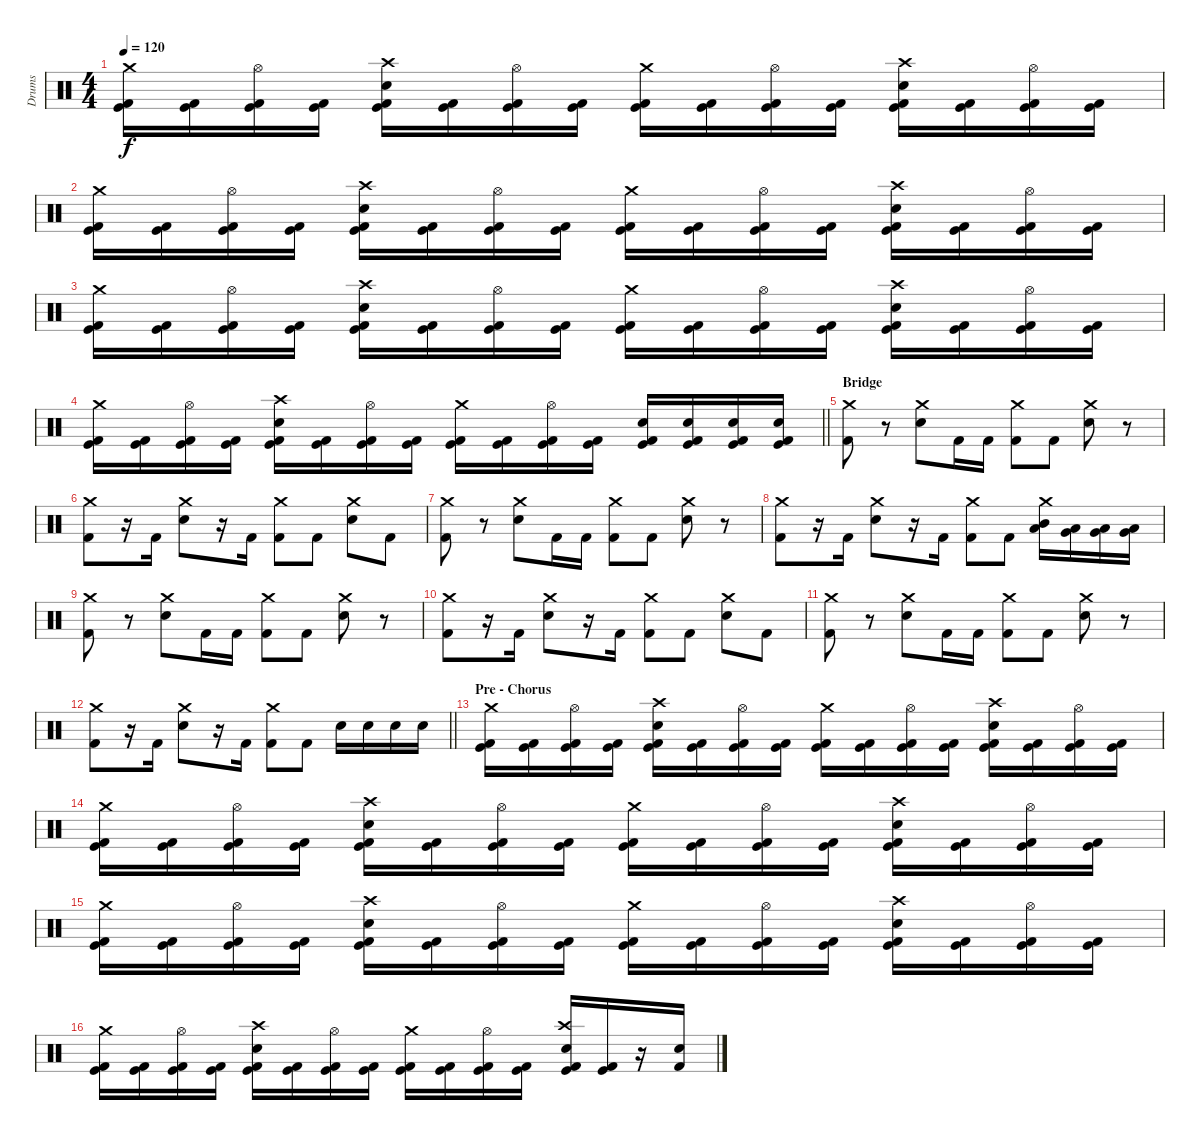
\track ("Drums" "Drums") {instrument percussion}
\staff {score}
\articulation defaults
\ts (4 4)
\tempo 120
\clef neutral
\ks c
("Crash medium (hit)" "Kick (hit) 2" "Kick (hit)").16{dy f} ("Kick (hit) 2" "Kick (hit)").16 ("Hi-Hat (open)" "Kick (hit) 2" "Kick (hit)").16 ("Kick (hit) 2" "Kick (hit)").16 ("Crash high (hit)" "Electric Snare (hit)" "Kick (hit) 2" "Kick (hit)").16 ("Kick (hit) 2" "Kick (hit)").16 ("Hi-Hat (open)" "Kick (hit) 2" "Kick (hit)").16 ("Kick (hit) 2" "Kick (hit)").16 ("Crash medium (hit)" "Kick (hit) 2" "Kick (hit)").16 ("Kick (hit) 2" "Kick (hit)").16 ("Hi-Hat (open)" "Kick (hit) 2" "Kick (hit)").16 ("Kick (hit) 2" "Kick (hit)").16 ("Crash high (hit)" "Electric Snare (hit)" "Kick (hit) 2" "Kick (hit)").16 ("Kick (hit) 2" "Kick (hit)").16 ("Hi-Hat (open)" "Kick (hit) 2" "Kick (hit)").16 ("Kick (hit) 2" "Kick (hit)").16 |
("Crash medium (hit)" "Kick (hit) 2" "Kick (hit)").16 ("Kick (hit) 2" "Kick (hit)").16 ("Hi-Hat (open)" "Kick (hit) 2" "Kick (hit)").16 ("Kick (hit) 2" "Kick (hit)").16 ("Crash high (hit)" "Electric Snare (hit)" "Kick (hit) 2" "Kick (hit)").16 ("Kick (hit) 2" "Kick (hit)").16 ("Hi-Hat (open)" "Kick (hit) 2" "Kick (hit)").16 ("Kick (hit) 2" "Kick (hit)").16 ("Crash medium (hit)" "Kick (hit) 2" "Kick (hit)").16 ("Kick (hit) 2" "Kick (hit)").16 ("Hi-Hat (open)" "Kick (hit) 2" "Kick (hit)").16 ("Kick (hit) 2" "Kick (hit)").16 ("Crash high (hit)" "Electric Snare (hit)" "Kick (hit) 2" "Kick (hit)").16 ("Kick (hit) 2" "Kick (hit)").16 ("Hi-Hat (open)" "Kick (hit) 2" "Kick (hit)").16 ("Kick (hit) 2" "Kick (hit)").16 |
("Crash medium (hit)" "Kick (hit) 2" "Kick (hit)").16 ("Kick (hit) 2" "Kick (hit)").16 ("Hi-Hat (open)" "Kick (hit) 2" "Kick (hit)").16 ("Kick (hit) 2" "Kick (hit)").16 ("Crash high (hit)" "Electric Snare (hit)" "Kick (hit) 2" "Kick (hit)").16 ("Kick (hit) 2" "Kick (hit)").16 ("Hi-Hat (open)" "Kick (hit) 2" "Kick (hit)").16 ("Kick (hit) 2" "Kick (hit)").16 ("Crash medium (hit)" "Kick (hit) 2" "Kick (hit)").16 ("Kick (hit) 2" "Kick (hit)").16 ("Hi-Hat (open)" "Kick (hit) 2" "Kick (hit)").16 ("Kick (hit) 2" "Kick (hit)").16 ("Crash high (hit)" "Electric Snare (hit)" "Kick (hit) 2" "Kick (hit)").16 ("Kick (hit) 2" "Kick (hit)").16 ("Hi-Hat (open)" "Kick (hit) 2" "Kick (hit)").16 ("Kick (hit) 2" "Kick (hit)").16 |
\barLineRight lightlight
("Crash medium (hit)" "Kick (hit) 2" "Kick (hit)").16 ("Kick (hit) 2" "Kick (hit)").16 ("Hi-Hat (open)" "Kick (hit) 2" "Kick (hit)").16 ("Kick (hit) 2" "Kick (hit)").16 ("Crash high (hit)" "Electric Snare (hit)" "Kick (hit) 2" "Kick (hit)").16 ("Kick (hit) 2" "Kick (hit)").16 ("Hi-Hat (open)" "Kick (hit) 2" "Kick (hit)").16 ("Kick (hit) 2" "Kick (hit)").16 ("Crash medium (hit)" "Kick (hit) 2" "Kick (hit)").16 ("Kick (hit) 2" "Kick (hit)").16 ("Hi-Hat (open)" "Kick (hit) 2" "Kick (hit)").16 ("Kick (hit) 2" "Kick (hit)").16 ("Electric Snare (hit)" "Kick (hit) 2" "Kick (hit)").16 ("Electric Snare (hit)" "Kick (hit) 2" "Kick (hit)").16 ("Electric Snare (hit)" "Kick (hit) 2" "Kick (hit)").16 ("Electric Snare (hit)" "Kick (hit) 2" "Kick (hit)").16 |
\section ("" "Bridge")
("Crash medium (hit)" "Kick (hit) 2").8 r.8 ("Crash medium (hit)" "Electric Snare (hit)").8 "Kick (hit) 2".16 "Kick (hit) 2".16 ("Crash medium (hit)" "Kick (hit) 2").8 "Kick (hit) 2".8 ("Crash medium (hit)" "Electric Snare (hit)").8 r.8 |
("Crash medium (hit)" "Kick (hit) 2").8 r.16 "Kick (hit) 2".16 ("Crash medium (hit)" "Electric Snare (hit)").8 r.16 "Kick (hit) 2".16 ("Crash medium (hit)" "Kick (hit) 2").8 "Kick (hit) 2".8 ("Crash medium (hit)" "Electric Snare (hit)").8 "Kick (hit) 2".8 |
("Crash medium (hit)" "Kick (hit) 2").8 r.8 ("Crash medium (hit)" "Electric Snare (hit)").8 "Kick (hit) 2".16 "Kick (hit) 2".16 ("Crash medium (hit)" "Kick (hit) 2").8 "Kick (hit) 2".8 ("Crash medium (hit)" "Electric Snare (hit)").8 r.8 |
("Crash medium (hit)" "Kick (hit) 2").8 r.16 "Kick (hit) 2".16 ("Crash medium (hit)" "Electric Snare (hit)").8 r.16 "Kick (hit) 2".16 ("Crash medium (hit)" "Kick (hit) 2").8 "Kick (hit) 2".8 ("Crash medium (hit)" "Low Tom (hit)" "Mid Tom (hit)").16 ("Very Low Tom (hit)" "Low Tom (hit)").16 ("Low Floor Tom (hit)" "Very Low Tom (hit)").16 ("Low Floor Tom (hit)" "Very Low Tom (hit)").16 |
("Crash medium (hit)" "Kick (hit) 2").8 r.8 ("Crash medium (hit)" "Electric Snare (hit)").8 "Kick (hit) 2".16 "Kick (hit) 2".16 ("Crash medium (hit)" "Kick (hit) 2").8 "Kick (hit) 2".8 ("Crash medium (hit)" "Electric Snare (hit)").8 r.8 |
("Crash medium (hit)" "Kick (hit) 2").8 r.16 "Kick (hit) 2".16 ("Crash medium (hit)" "Electric Snare (hit)").8 r.16 "Kick (hit) 2".16 ("Crash medium (hit)" "Kick (hit) 2").8 "Kick (hit) 2".8 ("Crash medium (hit)" "Electric Snare (hit)").8 "Kick (hit) 2".8 |
("Crash medium (hit)" "Kick (hit) 2").8 r.8 ("Crash medium (hit)" "Electric Snare (hit)").8 "Kick (hit) 2".16 "Kick (hit) 2".16 ("Crash medium (hit)" "Kick (hit) 2").8 "Kick (hit) 2".8 ("Crash medium (hit)" "Electric Snare (hit)").8 r.8 |
\barLineRight lightlight
("Crash medium (hit)" "Kick (hit) 2").8 r.16 "Kick (hit) 2".16 ("Crash medium (hit)" "Electric Snare (hit)").8 r.16 "Kick (hit) 2".16 ("Crash medium (hit)" "Kick (hit) 2").8 "Kick (hit) 2".8 "Electric Snare (hit)".16 "Electric Snare (hit)".16 "Electric Snare (hit)".16 "Electric Snare (hit)".16 |
\section ("" "Pre - Chorus")
("Crash medium (hit)" "Kick (hit) 2" "Kick (hit)").16 ("Kick (hit) 2" "Kick (hit)").16 ("Hi-Hat (open)" "Kick (hit) 2" "Kick (hit)").16 ("Kick (hit) 2" "Kick (hit)").16 ("Crash high (hit)" "Electric Snare (hit)" "Kick (hit) 2" "Kick (hit)").16 ("Kick (hit) 2" "Kick (hit)").16 ("Hi-Hat (open)" "Kick (hit) 2" "Kick (hit)").16 ("Kick (hit) 2" "Kick (hit)").16 ("Crash medium (hit)" "Kick (hit) 2" "Kick (hit)").16 ("Kick (hit) 2" "Kick (hit)").16 ("Hi-Hat (open)" "Kick (hit) 2" "Kick (hit)").16 ("Kick (hit) 2" "Kick (hit)").16 ("Crash high (hit)" "Electric Snare (hit)" "Kick (hit) 2" "Kick (hit)").16 ("Kick (hit) 2" "Kick (hit)").16 ("Hi-Hat (open)" "Kick (hit) 2" "Kick (hit)").16 ("Kick (hit) 2" "Kick (hit)").16 |
("Crash medium (hit)" "Kick (hit) 2" "Kick (hit)").16 ("Kick (hit) 2" "Kick (hit)").16 ("Hi-Hat (open)" "Kick (hit) 2" "Kick (hit)").16 ("Kick (hit) 2" "Kick (hit)").16 ("Crash high (hit)" "Electric Snare (hit)" "Kick (hit) 2" "Kick (hit)").16 ("Kick (hit) 2" "Kick (hit)").16 ("Hi-Hat (open)" "Kick (hit) 2" "Kick (hit)").16 ("Kick (hit) 2" "Kick (hit)").16 ("Crash medium (hit)" "Kick (hit) 2" "Kick (hit)").16 ("Kick (hit) 2" "Kick (hit)").16 ("Hi-Hat (open)" "Kick (hit) 2" "Kick (hit)").16 ("Kick (hit) 2" "Kick (hit)").16 ("Crash high (hit)" "Electric Snare (hit)" "Kick (hit) 2" "Kick (hit)").16 ("Kick (hit) 2" "Kick (hit)").16 ("Hi-Hat (open)" "Kick (hit) 2" "Kick (hit)").16 ("Kick (hit) 2" "Kick (hit)").16 |
("Crash medium (hit)" "Kick (hit) 2" "Kick (hit)").16 ("Kick (hit) 2" "Kick (hit)").16 ("Hi-Hat (open)" "Kick (hit) 2" "Kick (hit)").16 ("Kick (hit) 2" "Kick (hit)").16 ("Crash high (hit)" "Electric Snare (hit)" "Kick (hit) 2" "Kick (hit)").16 ("Kick (hit) 2" "Kick (hit)").16 ("Hi-Hat (open)" "Kick (hit) 2" "Kick (hit)").16 ("Kick (hit) 2" "Kick (hit)").16 ("Crash medium (hit)" "Kick (hit) 2" "Kick (hit)").16 ("Kick (hit) 2" "Kick (hit)").16 ("Hi-Hat (open)" "Kick (hit) 2" "Kick (hit)").16 ("Kick (hit) 2" "Kick (hit)").16 ("Crash high (hit)" "Electric Snare (hit)" "Kick (hit) 2" "Kick (hit)").16 ("Kick (hit) 2" "Kick (hit)").16 ("Hi-Hat (open)" "Kick (hit) 2" "Kick (hit)").16 ("Kick (hit) 2" "Kick (hit)").16 |
("Crash medium (hit)" "Kick (hit) 2" "Kick (hit)").16 ("Kick (hit) 2" "Kick (hit)").16 ("Hi-Hat (open)" "Kick (hit) 2" "Kick (hit)").16 ("Kick (hit) 2" "Kick (hit)").16 ("Crash high (hit)" "Electric Snare (hit)" "Kick (hit) 2" "Kick (hit)").16 ("Kick (hit) 2" "Kick (hit)").16 ("Hi-Hat (open)" "Kick (hit) 2" "Kick (hit)").16 ("Kick (hit) 2" "Kick (hit)").16 ("Crash medium (hit)" "Kick (hit) 2" "Kick (hit)").16 ("Kick (hit) 2" "Kick (hit)").16 ("Hi-Hat (open)" "Kick (hit) 2" "Kick (hit)").16 ("Kick (hit) 2" "Kick (hit)").16 ("Crash high (hit)" "Electric Snare (hit)" "Kick (hit) 2" "Kick (hit)").16 ("Kick (hit) 2" "Kick (hit)").16 r.16 ("Electric Snare (hit)" "Kick (hit) 2").16
